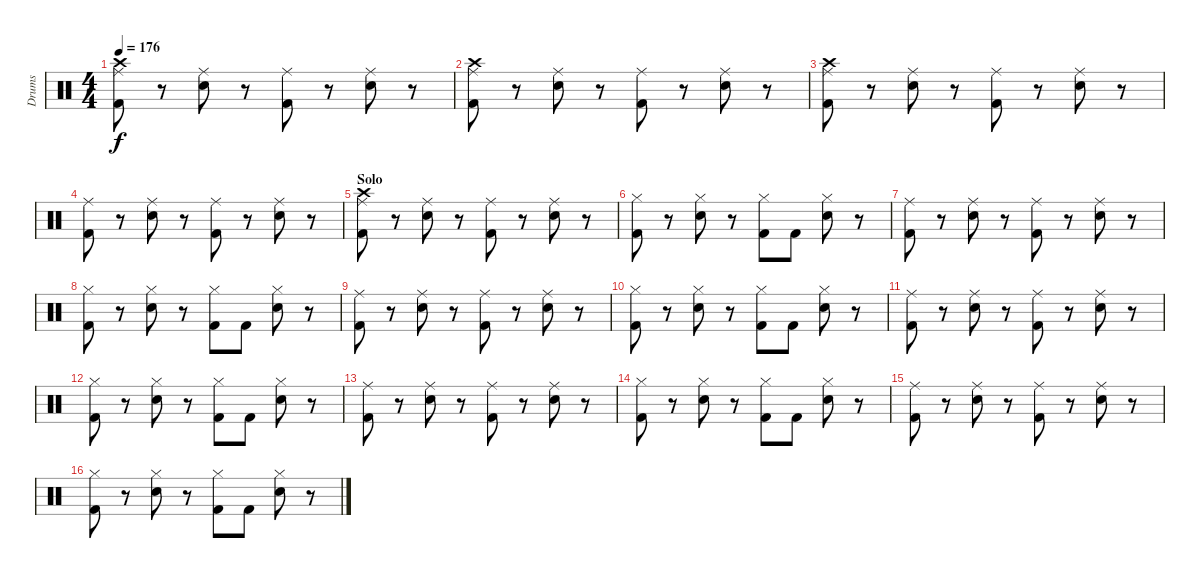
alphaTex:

\track ("Drums" "Drums") {instrument percussion}
\staff {score}
\articulation defaults
\ts (4 4)
\tempo 176
\clef neutral
\ks c
("Crash high (hit)" "Ride (middle)" "Kick (hit) 2").8{dy f} r.8 ("Ride (middle)" "Electric Snare (hit)").8 r.8 ("Ride (middle)" "Kick (hit) 2").8 r.8 ("Ride (middle)" "Electric Snare (hit)").8 r.8 |
("Crash high (hit)" "Ride (middle)" "Kick (hit) 2").8 r.8 ("Ride (middle)" "Electric Snare (hit)").8 r.8 ("Ride (middle)" "Kick (hit) 2").8 r.8 ("Ride (middle)" "Electric Snare (hit)").8 r.8 |
("Crash high (hit)" "Ride (middle)" "Kick (hit) 2").8 r.8 ("Ride (middle)" "Electric Snare (hit)").8 r.8 ("Ride (middle)" "Kick (hit) 2").8 r.8 ("Ride (middle)" "Electric Snare (hit)").8 r.8 |
("Ride (middle)" "Kick (hit) 2").8 r.8 ("Ride (middle)" "Electric Snare (hit)").8 r.8 ("Ride (middle)" "Kick (hit) 2").8 r.8 ("Ride (middle)" "Electric Snare (hit)").8 r.8 |
\section ("" "Solo")
("Crash high (hit)" "Ride (middle)" "Kick (hit) 2").8 r.8 ("Ride (middle)" "Electric Snare (hit)").8 r.8 ("Ride (middle)" "Kick (hit) 2").8 r.8 ("Ride (middle)" "Electric Snare (hit)").8 r.8 |
("Hi-Hat (closed)" "Kick (hit) 2").8 r.8 ("Hi-Hat (closed)" "Electric Snare (hit)").8 r.8 ("Hi-Hat (closed)" "Kick (hit) 2").8 "Kick (hit) 2".8 ("Hi-Hat (closed)" "Electric Snare (hit)").8 r.8 |
("Ride (middle)" "Kick (hit) 2").8 r.8 ("Ride (middle)" "Electric Snare (hit)").8 r.8 ("Ride (middle)" "Kick (hit) 2").8 r.8 ("Ride (middle)" "Electric Snare (hit)").8 r.8 |
("Hi-Hat (closed)" "Kick (hit) 2").8 r.8 ("Hi-Hat (closed)" "Electric Snare (hit)").8 r.8 ("Hi-Hat (closed)" "Kick (hit) 2").8 "Kick (hit) 2".8 ("Hi-Hat (closed)" "Electric Snare (hit)").8 r.8 |
("Ride (middle)" "Kick (hit) 2").8 r.8 ("Ride (middle)" "Electric Snare (hit)").8 r.8 ("Ride (middle)" "Kick (hit) 2").8 r.8 ("Ride (middle)" "Electric Snare (hit)").8 r.8 |
("Hi-Hat (closed)" "Kick (hit) 2").8 r.8 ("Hi-Hat (closed)" "Electric Snare (hit)").8 r.8 ("Hi-Hat (closed)" "Kick (hit) 2").8 "Kick (hit) 2".8 ("Hi-Hat (closed)" "Electric Snare (hit)").8 r.8 |
("Ride (middle)" "Kick (hit) 2").8 r.8 ("Ride (middle)" "Electric Snare (hit)").8 r.8 ("Ride (middle)" "Kick (hit) 2").8 r.8 ("Ride (middle)" "Electric Snare (hit)").8 r.8 |
("Hi-Hat (closed)" "Kick (hit) 2").8 r.8 ("Hi-Hat (closed)" "Electric Snare (hit)").8 r.8 ("Hi-Hat (closed)" "Kick (hit) 2").8 "Kick (hit) 2".8 ("Hi-Hat (closed)" "Electric Snare (hit)").8 r.8 |
("Ride (middle)" "Kick (hit) 2").8 r.8 ("Ride (middle)" "Electric Snare (hit)").8 r.8 ("Ride (middle)" "Kick (hit) 2").8 r.8 ("Ride (middle)" "Electric Snare (hit)").8 r.8 |
("Hi-Hat (closed)" "Kick (hit) 2").8 r.8 ("Hi-Hat (closed)" "Electric Snare (hit)").8 r.8 ("Hi-Hat (closed)" "Kick (hit) 2").8 "Kick (hit) 2".8 ("Hi-Hat (closed)" "Electric Snare (hit)").8 r.8 |
("Ride (middle)" "Kick (hit) 2").8 r.8 ("Ride (middle)" "Electric Snare (hit)").8 r.8 ("Ride (middle)" "Kick (hit) 2").8 r.8 ("Ride (middle)" "Electric Snare (hit)").8 r.8 |
("Hi-Hat (closed)" "Kick (hit) 2").8 r.8 ("Hi-Hat (closed)" "Electric Snare (hit)").8 r.8 ("Hi-Hat (closed)" "Kick (hit) 2").8 "Kick (hit) 2".8 ("Hi-Hat (closed)" "Electric Snare (hit)").8 r.8
